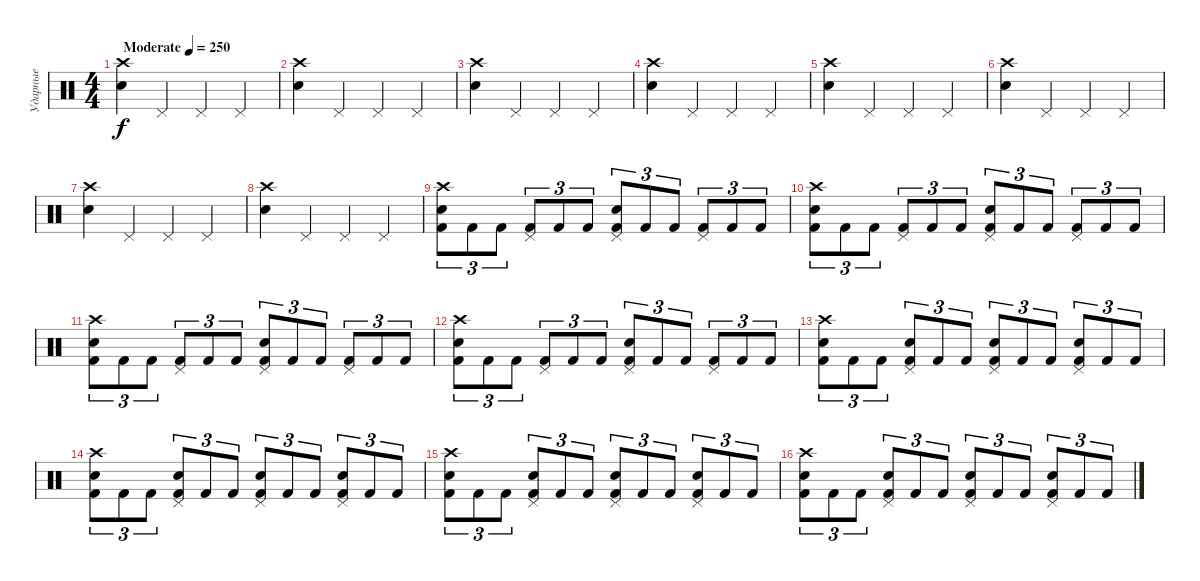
\track ("Ударные" "Ударные") {instrument percussion}
\staff {score}
\articulation defaults
\ts (4 4)
\tempo (250 "Moderate")
\clef neutral
\ks c
("Crash high (hit)" "Snare (hit) 2").4{dy f} "Pedal Hi-Hat (hit)".4 "Pedal Hi-Hat (hit)".4 "Pedal Hi-Hat (hit)".4 |
("Crash high (hit)" "Snare (hit) 2").4 "Pedal Hi-Hat (hit)".4 "Pedal Hi-Hat (hit)".4 "Pedal Hi-Hat (hit)".4 |
("Crash high (hit)" "Snare (hit) 2").4 "Pedal Hi-Hat (hit)".4 "Pedal Hi-Hat (hit)".4 "Pedal Hi-Hat (hit)".4 |
("Crash high (hit)" "Snare (hit) 2").4 "Pedal Hi-Hat (hit)".4 "Pedal Hi-Hat (hit)".4 "Pedal Hi-Hat (hit)".4 |
("Crash high (hit)" "Snare (hit) 2").4 "Pedal Hi-Hat (hit)".4 "Pedal Hi-Hat (hit)".4 "Pedal Hi-Hat (hit)".4 |
("Crash high (hit)" "Snare (hit) 2").4 "Pedal Hi-Hat (hit)".4 "Pedal Hi-Hat (hit)".4 "Pedal Hi-Hat (hit)".4 |
("Crash high (hit)" "Snare (hit) 2").4 "Pedal Hi-Hat (hit)".4 "Pedal Hi-Hat (hit)".4 "Pedal Hi-Hat (hit)".4 |
("Crash high (hit)" "Snare (hit) 2").4 "Pedal Hi-Hat (hit)".4 "Pedal Hi-Hat (hit)".4 "Pedal Hi-Hat (hit)".4 |
("Crash high (hit)" "Snare (hit) 2" "Kick (hit) 2").8{tu (3 2)} "Kick (hit) 2".8{tu (3 2)} "Kick (hit) 2".8{tu (3 2)} ("Pedal Hi-Hat (hit)" "Kick (hit) 2").8{tu (3 2)} "Kick (hit) 2".8{tu (3 2)} "Kick (hit) 2".8{tu (3 2)} ("Pedal Hi-Hat (hit)" "Snare (hit) 2" "Kick (hit) 2").8{tu (3 2)} "Kick (hit) 2".8{tu (3 2)} "Kick (hit) 2".8{tu (3 2)} ("Pedal Hi-Hat (hit)" "Kick (hit) 2").8{tu (3 2)} "Kick (hit) 2".8{tu (3 2)} "Kick (hit) 2".8{tu (3 2)} |
("Crash high (hit)" "Snare (hit) 2" "Kick (hit) 2").8{tu (3 2)} "Kick (hit) 2".8{tu (3 2)} "Kick (hit) 2".8{tu (3 2)} ("Pedal Hi-Hat (hit)" "Kick (hit) 2").8{tu (3 2)} "Kick (hit) 2".8{tu (3 2)} "Kick (hit) 2".8{tu (3 2)} ("Pedal Hi-Hat (hit)" "Snare (hit) 2" "Kick (hit) 2").8{tu (3 2)} "Kick (hit) 2".8{tu (3 2)} "Kick (hit) 2".8{tu (3 2)} ("Pedal Hi-Hat (hit)" "Kick (hit) 2").8{tu (3 2)} "Kick (hit) 2".8{tu (3 2)} "Kick (hit) 2".8{tu (3 2)} |
("Crash high (hit)" "Snare (hit) 2" "Kick (hit) 2").8{tu (3 2)} "Kick (hit) 2".8{tu (3 2)} "Kick (hit) 2".8{tu (3 2)} ("Pedal Hi-Hat (hit)" "Kick (hit) 2").8{tu (3 2)} "Kick (hit) 2".8{tu (3 2)} "Kick (hit) 2".8{tu (3 2)} ("Pedal Hi-Hat (hit)" "Snare (hit) 2" "Kick (hit) 2").8{tu (3 2)} "Kick (hit) 2".8{tu (3 2)} "Kick (hit) 2".8{tu (3 2)} ("Pedal Hi-Hat (hit)" "Kick (hit) 2").8{tu (3 2)} "Kick (hit) 2".8{tu (3 2)} "Kick (hit) 2".8{tu (3 2)} |
("Crash high (hit)" "Snare (hit) 2" "Kick (hit) 2").8{tu (3 2)} "Kick (hit) 2".8{tu (3 2)} "Kick (hit) 2".8{tu (3 2)} ("Pedal Hi-Hat (hit)" "Kick (hit) 2").8{tu (3 2)} "Kick (hit) 2".8{tu (3 2)} "Kick (hit) 2".8{tu (3 2)} ("Pedal Hi-Hat (hit)" "Snare (hit) 2" "Kick (hit) 2").8{tu (3 2)} "Kick (hit) 2".8{tu (3 2)} "Kick (hit) 2".8{tu (3 2)} ("Pedal Hi-Hat (hit)" "Kick (hit) 2").8{tu (3 2)} "Kick (hit) 2".8{tu (3 2)} "Kick (hit) 2".8{tu (3 2)} |
("Crash high (hit)" "Snare (hit) 2" "Kick (hit) 2").8{tu (3 2)} "Kick (hit) 2".8{tu (3 2)} "Kick (hit) 2".8{tu (3 2)} ("Pedal Hi-Hat (hit)" "Snare (hit) 2" "Kick (hit) 2").8{tu (3 2)} "Kick (hit) 2".8{tu (3 2)} "Kick (hit) 2".8{tu (3 2)} ("Pedal Hi-Hat (hit)" "Snare (hit) 2" "Kick (hit) 2").8{tu (3 2)} "Kick (hit) 2".8{tu (3 2)} "Kick (hit) 2".8{tu (3 2)} ("Pedal Hi-Hat (hit)" "Snare (hit) 2" "Kick (hit) 2").8{tu (3 2)} "Kick (hit) 2".8{tu (3 2)} "Kick (hit) 2".8{tu (3 2)} |
("Crash high (hit)" "Snare (hit) 2" "Kick (hit) 2").8{tu (3 2)} "Kick (hit) 2".8{tu (3 2)} "Kick (hit) 2".8{tu (3 2)} ("Pedal Hi-Hat (hit)" "Snare (hit) 2" "Kick (hit) 2").8{tu (3 2)} "Kick (hit) 2".8{tu (3 2)} "Kick (hit) 2".8{tu (3 2)} ("Pedal Hi-Hat (hit)" "Snare (hit) 2" "Kick (hit) 2").8{tu (3 2)} "Kick (hit) 2".8{tu (3 2)} "Kick (hit) 2".8{tu (3 2)} ("Pedal Hi-Hat (hit)" "Snare (hit) 2" "Kick (hit) 2").8{tu (3 2)} "Kick (hit) 2".8{tu (3 2)} "Kick (hit) 2".8{tu (3 2)} |
("Crash high (hit)" "Snare (hit) 2" "Kick (hit) 2").8{tu (3 2)} "Kick (hit) 2".8{tu (3 2)} "Kick (hit) 2".8{tu (3 2)} ("Pedal Hi-Hat (hit)" "Snare (hit) 2" "Kick (hit) 2").8{tu (3 2)} "Kick (hit) 2".8{tu (3 2)} "Kick (hit) 2".8{tu (3 2)} ("Pedal Hi-Hat (hit)" "Snare (hit) 2" "Kick (hit) 2").8{tu (3 2)} "Kick (hit) 2".8{tu (3 2)} "Kick (hit) 2".8{tu (3 2)} ("Pedal Hi-Hat (hit)" "Snare (hit) 2" "Kick (hit) 2").8{tu (3 2)} "Kick (hit) 2".8{tu (3 2)} "Kick (hit) 2".8{tu (3 2)} |
("Crash high (hit)" "Snare (hit) 2" "Kick (hit) 2").8{tu (3 2)} "Kick (hit) 2".8{tu (3 2)} "Kick (hit) 2".8{tu (3 2)} ("Pedal Hi-Hat (hit)" "Snare (hit) 2" "Kick (hit) 2").8{tu (3 2)} "Kick (hit) 2".8{tu (3 2)} "Kick (hit) 2".8{tu (3 2)} ("Pedal Hi-Hat (hit)" "Snare (hit) 2" "Kick (hit) 2").8{tu (3 2)} "Kick (hit) 2".8{tu (3 2)} "Kick (hit) 2".8{tu (3 2)} ("Pedal Hi-Hat (hit)" "Snare (hit) 2" "Kick (hit) 2").8{tu (3 2)} "Kick (hit) 2".8{tu (3 2)} "Kick (hit) 2".8{tu (3 2)}
